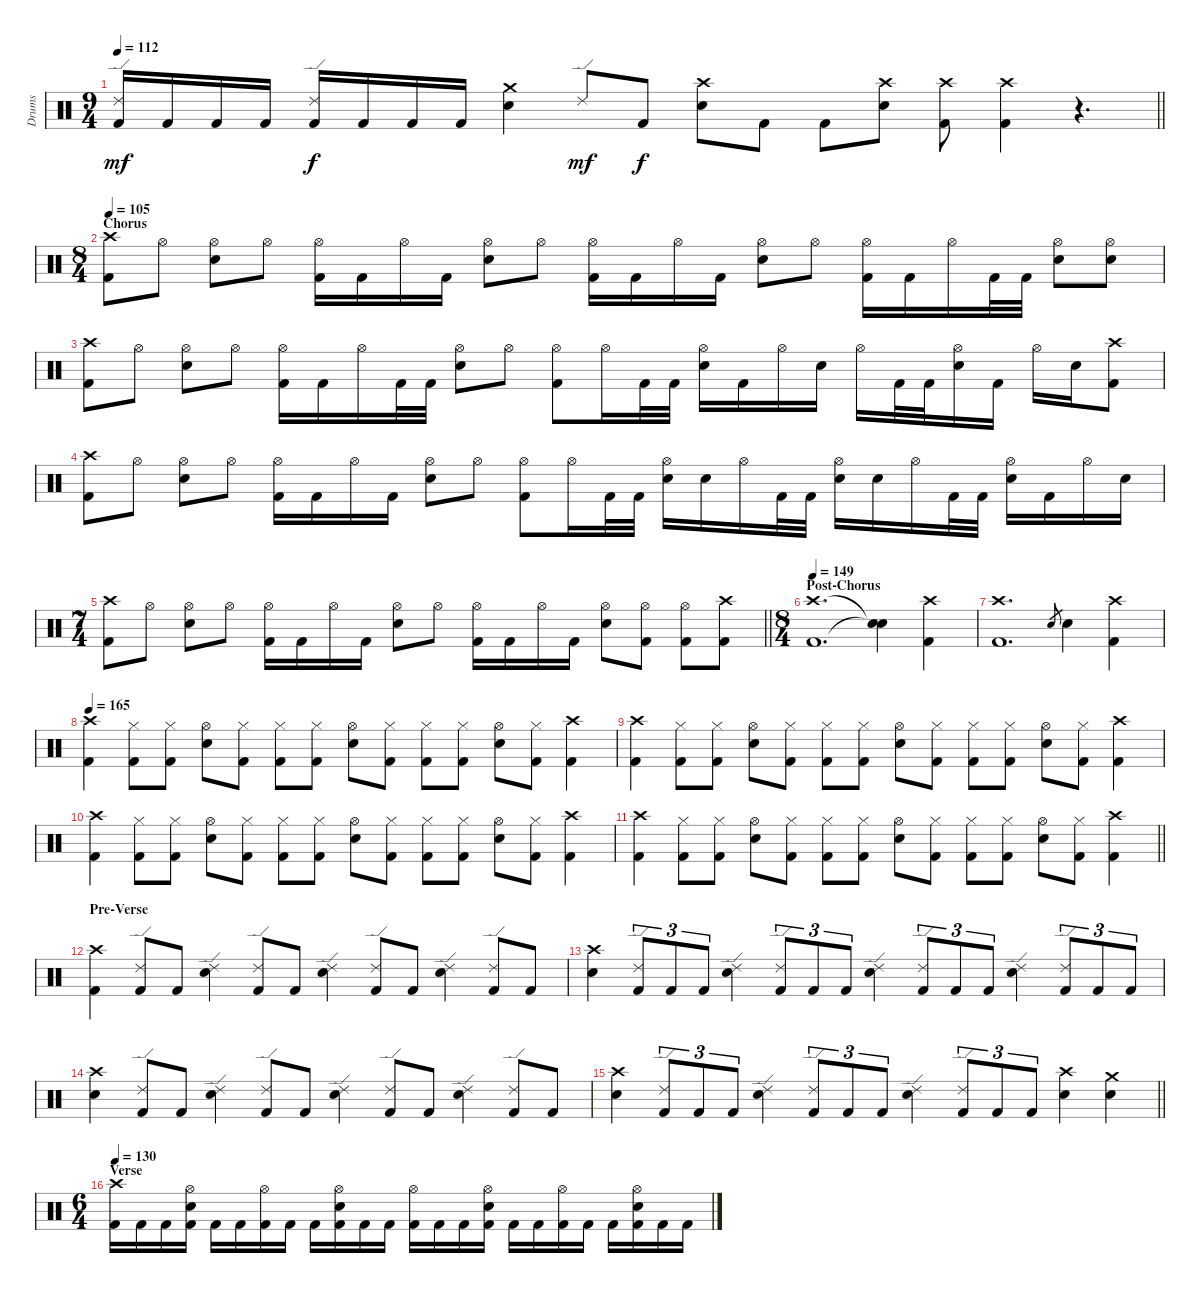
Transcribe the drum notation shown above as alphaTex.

\track ("Drums" "Drums") {instrument percussion}
\staff {score}
\articulation defaults
\ts (9 4)
\tempo 112
\clef neutral
\barLineRight lightlight
\ks c
("Ride (edge) 2" "Kick (hit) 2").16{dy mf} "Kick (hit) 2".16 "Kick (hit) 2".16 "Kick (hit) 2".16 ("Ride (edge) 2" "Kick (hit) 2").16{dy f} "Kick (hit) 2".16 "Kick (hit) 2".16 "Kick (hit) 2".16 ("Crash medium (hit)" "Snare (hit) 2").4 "Ride (edge) 2".8{dy mf} "Kick (hit) 2".8{dy f} ("Crash high (hit)" "Snare (hit) 2").8 "Kick (hit) 2".8 "Kick (hit) 2".8 ("Crash high (hit)" "Snare (hit) 2").8 ("Crash high (hit)" "Kick (hit) 2").8 ("Crash high (hit)" "Kick (hit) 2").4 r.4{d} |
\ts (8 4)
\section ("" "Chorus")
\tempo 105
("Crash high (hit)" "Kick (hit) 2").8 "Hi-Hat (open)".8 ("Hi-Hat (open)" "Snare (hit) 2").8 "Hi-Hat (open)".8 ("Hi-Hat (open)" "Kick (hit) 2").16 "Kick (hit) 2".16 "Hi-Hat (open)".16 "Kick (hit) 2".16 ("Hi-Hat (open)" "Snare (hit) 2").8 "Hi-Hat (open)".8 ("Hi-Hat (open)" "Kick (hit) 2").16 "Kick (hit) 2".16 "Hi-Hat (open)".16 "Kick (hit) 2".16 ("Hi-Hat (open)" "Snare (hit) 2").8 "Hi-Hat (open)".8 ("Hi-Hat (open)" "Kick (hit) 2").16 "Kick (hit) 2".16 "Hi-Hat (open)".16 "Kick (hit) 2".32 "Kick (hit) 2".32 ("Hi-Hat (open)" "Snare (hit) 2").8 ("Hi-Hat (open)" "Snare (hit) 2").8 |
("Crash high (hit)" "Kick (hit) 2").8 "Hi-Hat (open)".8 ("Hi-Hat (open)" "Snare (hit) 2").8 "Hi-Hat (open)".8 ("Hi-Hat (open)" "Kick (hit) 2").16 "Kick (hit) 2".16 "Hi-Hat (open)".16 "Kick (hit) 2".32 "Kick (hit) 2".32 ("Hi-Hat (open)" "Snare (hit) 2").8 "Hi-Hat (open)".8 ("Hi-Hat (open)" "Kick (hit) 2").8 "Hi-Hat (open)".16 "Kick (hit) 2".32 "Kick (hit) 2".32 ("Hi-Hat (open)" "Snare (hit) 2").16 "Kick (hit) 2".16 "Hi-Hat (open)".16 "Snare (hit) 2".16 "Hi-Hat (open)".16 "Kick (hit) 2".32 "Kick (hit) 2".32 ("Hi-Hat (open)" "Snare (hit) 2").16 "Kick (hit) 2".16 "Hi-Hat (open)".16 "Snare (hit) 2".16 ("Crash high (hit)" "Kick (hit) 2").8 |
("Crash high (hit)" "Kick (hit) 2").8 "Hi-Hat (open)".8 ("Hi-Hat (open)" "Snare (hit) 2").8 "Hi-Hat (open)".8 ("Hi-Hat (open)" "Kick (hit) 2").16 "Kick (hit) 2".16 "Hi-Hat (open)".16 "Kick (hit) 2".16 ("Hi-Hat (open)" "Snare (hit) 2").8 "Hi-Hat (open)".8 ("Hi-Hat (open)" "Kick (hit) 2").8 "Hi-Hat (open)".16 "Kick (hit) 2".32 "Kick (hit) 2".32 ("Hi-Hat (open)" "Snare (hit) 2").16 "Snare (hit) 2".16 "Hi-Hat (open)".16 "Kick (hit) 2".32 "Kick (hit) 2".32 ("Hi-Hat (open)" "Snare (hit) 2").16 "Snare (hit) 2".16 "Hi-Hat (open)".16 "Kick (hit) 2".32 "Kick (hit) 2".32 ("Hi-Hat (open)" "Snare (hit) 2").16 "Kick (hit) 2".16 "Hi-Hat (open)".16 "Snare (hit) 2".16 |
\ts (7 4)
\barLineRight lightlight
("Crash high (hit)" "Kick (hit) 2").8 "Hi-Hat (open)".8 ("Hi-Hat (open)" "Snare (hit) 2").8 "Hi-Hat (open)".8 ("Hi-Hat (open)" "Kick (hit) 2").16 "Kick (hit) 2".16 "Hi-Hat (open)".16 "Kick (hit) 2".16 ("Hi-Hat (open)" "Snare (hit) 2").8 "Hi-Hat (open)".8 ("Hi-Hat (open)" "Kick (hit) 2").16 "Kick (hit) 2".16 "Hi-Hat (open)".16 "Kick (hit) 2".16 ("Hi-Hat (open)" "Snare (hit) 2").8 ("Hi-Hat (open)" "Kick (hit) 2").8 ("Hi-Hat (open)" "Kick (hit) 2").8 ("Crash high (hit)" "Kick (hit) 2").8 |
\ts (8 4)
\section ("" "Post-Chorus")
\tempo 149
("Crash high (hit)" "Kick (hit) 2").1{d} ("Snare (hit)"{t} "Snare (hit)"{t}).4 ("Crash high (hit)" "Kick (hit) 2").4 |
("Crash high (hit)" "Kick (hit) 2").1{d} "Snare (hit) 2".8{gr} "Snare (hit) 2".4 ("Crash high (hit)" "Kick (hit) 2").4 |
\tempo 165
("Crash high (hit)" "Kick (hit) 2").4 ("Hi-Hat (closed)" "Kick (hit) 2").8 ("Hi-Hat (closed)" "Kick (hit) 2").8 ("Hi-Hat (open)" "Snare (hit) 2").8 ("Hi-Hat (closed)" "Kick (hit) 2").8 ("Hi-Hat (closed)" "Kick (hit) 2").8 ("Hi-Hat (closed)" "Kick (hit) 2").8 ("Hi-Hat (open)" "Snare (hit) 2").8 ("Hi-Hat (closed)" "Kick (hit) 2").8 ("Hi-Hat (closed)" "Kick (hit) 2").8 ("Hi-Hat (closed)" "Kick (hit) 2").8 ("Hi-Hat (open)" "Snare (hit) 2").8 ("Hi-Hat (closed)" "Kick (hit) 2").8 ("Crash high (hit)" "Kick (hit) 2").4 |
("Crash high (hit)" "Kick (hit) 2").4 ("Hi-Hat (closed)" "Kick (hit) 2").8 ("Hi-Hat (closed)" "Kick (hit) 2").8 ("Hi-Hat (open)" "Snare (hit) 2").8 ("Hi-Hat (closed)" "Kick (hit) 2").8 ("Hi-Hat (closed)" "Kick (hit) 2").8 ("Hi-Hat (closed)" "Kick (hit) 2").8 ("Hi-Hat (open)" "Snare (hit) 2").8 ("Hi-Hat (closed)" "Kick (hit) 2").8 ("Hi-Hat (closed)" "Kick (hit) 2").8 ("Hi-Hat (closed)" "Kick (hit) 2").8 ("Hi-Hat (open)" "Snare (hit) 2").8 ("Hi-Hat (closed)" "Kick (hit) 2").8 ("Crash high (hit)" "Kick (hit) 2").4 |
("Crash high (hit)" "Kick (hit) 2").4 ("Hi-Hat (closed)" "Kick (hit) 2").8 ("Hi-Hat (closed)" "Kick (hit) 2").8 ("Hi-Hat (open)" "Snare (hit) 2").8 ("Hi-Hat (closed)" "Kick (hit) 2").8 ("Hi-Hat (closed)" "Kick (hit) 2").8 ("Hi-Hat (closed)" "Kick (hit) 2").8 ("Hi-Hat (open)" "Snare (hit) 2").8 ("Hi-Hat (closed)" "Kick (hit) 2").8 ("Hi-Hat (closed)" "Kick (hit) 2").8 ("Hi-Hat (closed)" "Kick (hit) 2").8 ("Hi-Hat (open)" "Snare (hit) 2").8 ("Hi-Hat (closed)" "Kick (hit) 2").8 ("Crash high (hit)" "Kick (hit) 2").4 |
\barLineRight lightlight
("Crash high (hit)" "Kick (hit) 2").4 ("Hi-Hat (closed)" "Kick (hit) 2").8 ("Hi-Hat (closed)" "Kick (hit) 2").8 ("Hi-Hat (open)" "Snare (hit) 2").8 ("Hi-Hat (closed)" "Kick (hit) 2").8 ("Hi-Hat (closed)" "Kick (hit) 2").8 ("Hi-Hat (closed)" "Kick (hit) 2").8 ("Hi-Hat (open)" "Snare (hit) 2").8 ("Hi-Hat (closed)" "Kick (hit) 2").8 ("Hi-Hat (closed)" "Kick (hit) 2").8 ("Hi-Hat (closed)" "Kick (hit) 2").8 ("Hi-Hat (open)" "Snare (hit) 2").8 ("Hi-Hat (closed)" "Kick (hit) 2").8 ("Crash high (hit)" "Kick (hit) 2").4 |
\section ("" "Pre-Verse")
("Crash high (hit)" "Kick (hit) 2").4 ("Ride (edge) 2" "Kick (hit) 2").8 "Kick (hit) 2".8 ("Ride (edge) 2" "Snare (hit) 2").4 ("Ride (edge) 2" "Kick (hit) 2").8 "Kick (hit) 2".8 ("Ride (edge) 2" "Snare (hit) 2").4 ("Ride (edge) 2" "Kick (hit) 2").8 "Kick (hit) 2".8 ("Ride (edge) 2" "Snare (hit) 2").4 ("Ride (edge) 2" "Kick (hit) 2").8 "Kick (hit) 2".8 |
("Crash high (hit)" "Snare (hit) 2").4 ("Ride (edge) 2" "Kick (hit) 2").8{tu (3 2)} "Kick (hit) 2".8{tu (3 2)} "Kick (hit) 2".8{tu (3 2)} ("Ride (edge) 2" "Snare (hit) 2").4 ("Ride (edge) 2" "Kick (hit) 2").8{tu (3 2)} "Kick (hit) 2".8{tu (3 2)} "Kick (hit) 2".8{tu (3 2)} ("Ride (edge) 2" "Snare (hit) 2").4 ("Ride (edge) 2" "Kick (hit) 2").8{tu (3 2)} "Kick (hit) 2".8{tu (3 2)} "Kick (hit) 2".8{tu (3 2)} ("Ride (edge) 2" "Snare (hit) 2").4 ("Ride (edge) 2" "Kick (hit) 2").8{tu (3 2)} "Kick (hit) 2".8{tu (3 2)} "Kick (hit) 2".8{tu (3 2)} |
("Crash high (hit)" "Snare (hit) 2").4 ("Ride (edge) 2" "Kick (hit) 2").8 "Kick (hit) 2".8 ("Ride (edge) 2" "Snare (hit) 2").4 ("Ride (edge) 2" "Kick (hit) 2").8 "Kick (hit) 2".8 ("Ride (edge) 2" "Snare (hit) 2").4 ("Ride (edge) 2" "Kick (hit) 2").8 "Kick (hit) 2".8 ("Ride (edge) 2" "Snare (hit) 2").4 ("Ride (edge) 2" "Kick (hit) 2").8 "Kick (hit) 2".8 |
\barLineRight lightlight
("Crash high (hit)" "Snare (hit) 2").4 ("Ride (edge) 2" "Kick (hit) 2").8{tu (3 2)} "Kick (hit) 2".8{tu (3 2)} "Kick (hit) 2".8{tu (3 2)} ("Ride (edge) 2" "Snare (hit) 2").4 ("Ride (edge) 2" "Kick (hit) 2").8{tu (3 2)} "Kick (hit) 2".8{tu (3 2)} "Kick (hit) 2".8{tu (3 2)} ("Ride (edge) 2" "Snare (hit) 2").4 ("Ride (edge) 2" "Kick (hit) 2").8{tu (3 2)} "Kick (hit) 2".8{tu (3 2)} "Kick (hit) 2".8{tu (3 2)} ("Crash high (hit)" "Snare (hit) 2").4 ("Crash medium (hit)" "Snare (hit) 2").4 |
\ts (6 4)
\section ("" "Verse")
\tempo 130
("Crash high (hit)" "Kick (hit) 2").16 "Kick (hit) 2".16 "Kick (hit) 2".16 ("Hi-Hat (open)" "Snare (hit) 2" "Kick (hit) 2").16 "Kick (hit) 2".16 "Kick (hit) 2".16 ("Hi-Hat (open)" "Kick (hit) 2").16 "Kick (hit) 2".16 "Kick (hit) 2".16 ("Hi-Hat (open)" "Snare (hit) 2" "Kick (hit) 2").16 "Kick (hit) 2".16 "Kick (hit) 2".16 ("Hi-Hat (open)" "Kick (hit) 2").16 "Kick (hit) 2".16 "Kick (hit) 2".16 ("Hi-Hat (open)" "Snare (hit) 2" "Kick (hit) 2").16 "Kick (hit) 2".16 "Kick (hit) 2".16 ("Hi-Hat (open)" "Kick (hit) 2").16 "Kick (hit) 2".16 "Kick (hit) 2".16 ("Hi-Hat (open)" "Snare (hit) 2" "Kick (hit) 2").16 "Kick (hit) 2".16 "Kick (hit) 2".16
